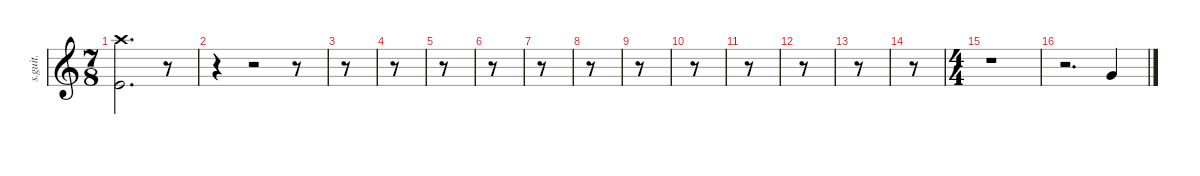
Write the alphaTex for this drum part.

\defaultSystemsLayout 4
\hideDynamics
\bracketExtendMode nobrackets
\track ("Matt Halpern" "s.guit.") {instrument percussion}
\staff {score}
\articulation defaults
\ts (7 8)
\beaming (8 2 2 2 2)
\tempo (213 hide)
\clef g2
\ks c
("Kick (hit)" "Crash high (hit)").2{d lyrics (0 "") lyrics (1 "") lyrics (2 "") lyrics (3 "") lyrics (4 "") dy mf} r.8 |
r.4 r.2 r.8 |
r.8 |
r.8 |
r.8 |
r.8 |
r.8 |
r.8 |
r.8 |
r.8 |
r.8 |
r.8 |
r.8 |
r.8 |
\ts (4 4)
\beaming (8 2 2 2 2)
r.1 |
r.2{d} "Very Low Tom (hit)".4{lyrics (0 "") lyrics (1 "") lyrics (2 "") lyrics (3 "") lyrics (4 "") dy f}
